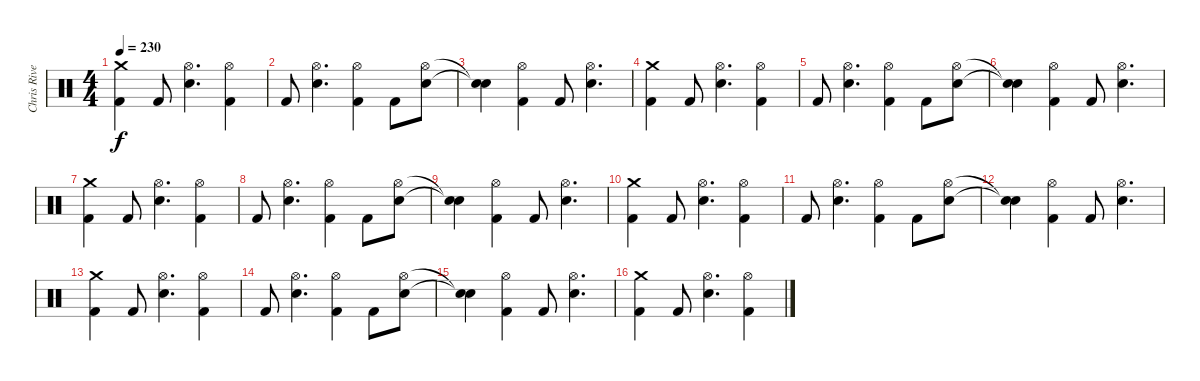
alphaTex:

\track ("Chris Rivers" "Chris Rive") {instrument percussion}
\staff {score}
\articulation defaults
\ts (4 4)
\tempo 230
\clef neutral
\ks c
("Crash medium (hit)" "Kick (hit) 2").4{dy f} "Kick (hit) 2".8 ("Hi-Hat (open)" "Electric Snare (hit)").4{d} ("Hi-Hat (open)" "Kick (hit) 2").4 |
"Kick (hit) 2".8 ("Hi-Hat (open)" "Electric Snare (hit)").4{d} ("Hi-Hat (open)" "Kick (hit) 2").4 "Kick (hit) 2".8 ("Hi-Hat (open)" "Electric Snare (hit)").8 |
("Snare (hit)"{t} "Snare (hit)"{t}).4 ("Hi-Hat (open)" "Kick (hit) 2").4 "Kick (hit) 2".8 ("Hi-Hat (open)" "Electric Snare (hit)").4{d} |
("Crash medium (hit)" "Kick (hit) 2").4 "Kick (hit) 2".8 ("Hi-Hat (open)" "Electric Snare (hit)").4{d} ("Hi-Hat (open)" "Kick (hit) 2").4 |
"Kick (hit) 2".8 ("Hi-Hat (open)" "Electric Snare (hit)").4{d} ("Hi-Hat (open)" "Kick (hit) 2").4 "Kick (hit) 2".8 ("Hi-Hat (open)" "Electric Snare (hit)").8 |
("Snare (hit)"{t} "Snare (hit)"{t}).4 ("Hi-Hat (open)" "Kick (hit) 2").4 "Kick (hit) 2".8 ("Hi-Hat (open)" "Electric Snare (hit)").4{d} |
("Crash medium (hit)" "Kick (hit) 2").4 "Kick (hit) 2".8 ("Hi-Hat (open)" "Electric Snare (hit)").4{d} ("Hi-Hat (open)" "Kick (hit) 2").4 |
"Kick (hit) 2".8 ("Hi-Hat (open)" "Electric Snare (hit)").4{d} ("Hi-Hat (open)" "Kick (hit) 2").4 "Kick (hit) 2".8 ("Hi-Hat (open)" "Electric Snare (hit)").8 |
("Snare (hit)"{t} "Snare (hit)"{t}).4 ("Hi-Hat (open)" "Kick (hit) 2").4 "Kick (hit) 2".8 ("Hi-Hat (open)" "Electric Snare (hit)").4{d} |
("Crash medium (hit)" "Kick (hit) 2").4 "Kick (hit) 2".8 ("Hi-Hat (open)" "Electric Snare (hit)").4{d} ("Hi-Hat (open)" "Kick (hit) 2").4 |
"Kick (hit) 2".8 ("Hi-Hat (open)" "Electric Snare (hit)").4{d} ("Hi-Hat (open)" "Kick (hit) 2").4 "Kick (hit) 2".8 ("Hi-Hat (open)" "Electric Snare (hit)").8 |
("Snare (hit)"{t} "Snare (hit)"{t}).4 ("Hi-Hat (open)" "Kick (hit) 2").4 "Kick (hit) 2".8 ("Hi-Hat (open)" "Electric Snare (hit)").4{d} |
("Crash medium (hit)" "Kick (hit) 2").4 "Kick (hit) 2".8 ("Hi-Hat (open)" "Electric Snare (hit)").4{d} ("Hi-Hat (open)" "Kick (hit) 2").4 |
"Kick (hit) 2".8 ("Hi-Hat (open)" "Electric Snare (hit)").4{d} ("Hi-Hat (open)" "Kick (hit) 2").4 "Kick (hit) 2".8 ("Hi-Hat (open)" "Electric Snare (hit)").8 |
("Snare (hit)"{t} "Snare (hit)"{t}).4 ("Hi-Hat (open)" "Kick (hit) 2").4 "Kick (hit) 2".8 ("Hi-Hat (open)" "Electric Snare (hit)").4{d} |
("Crash medium (hit)" "Kick (hit) 2").4 "Kick (hit) 2".8 ("Hi-Hat (open)" "Electric Snare (hit)").4{d} ("Hi-Hat (open)" "Kick (hit) 2").4
